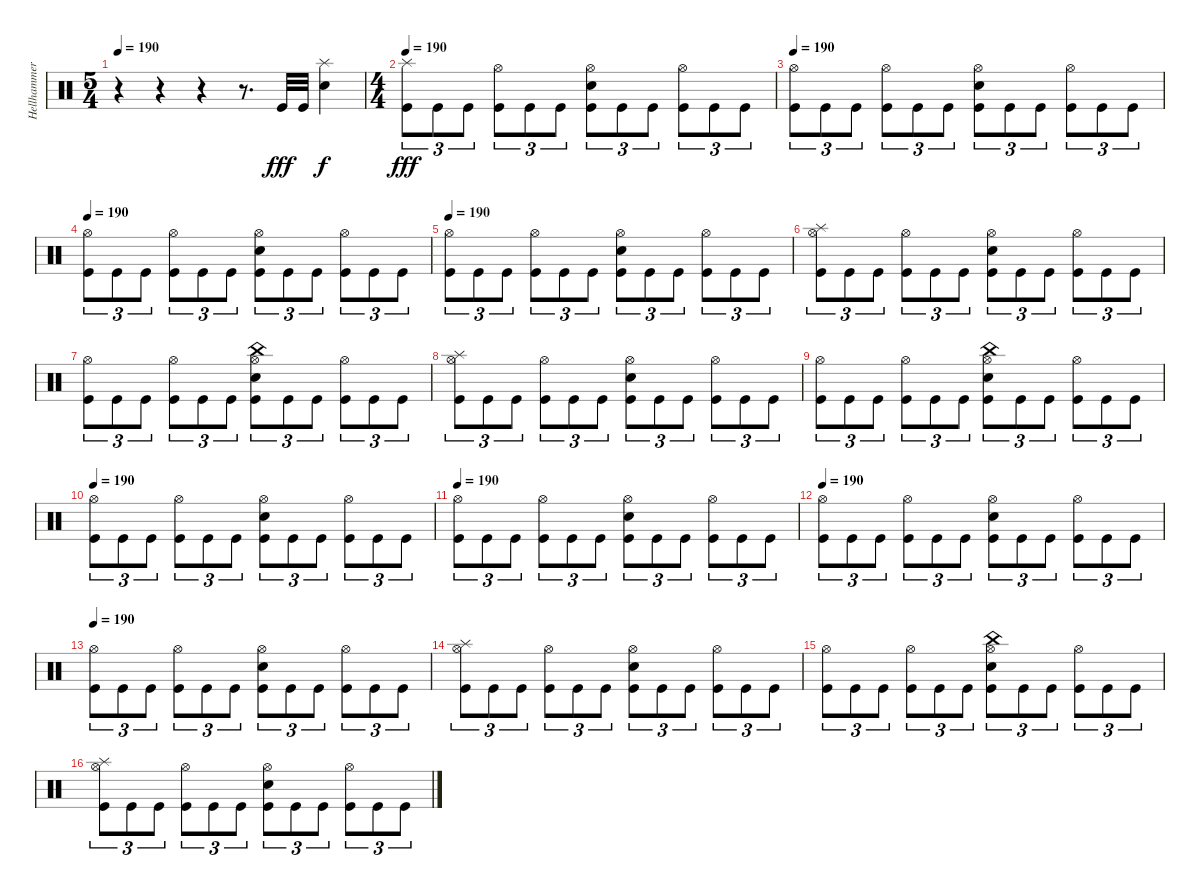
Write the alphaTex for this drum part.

\track ("Hellhammer" "Hellhammer") {instrument percussion}
\staff {score}
\articulation defaults
\ts (5 4)
\tempo 190
\clef neutral
\ks c
r.4{dy fff} r.4 r.4 r.8{d} "Kick (hit)".32 "Kick (hit)".32 ("Splash (hit)" "Electric Snare (hit)").4{dy f} |
\ts (4 4)
\tempo 190
("Splash (hit)" "Kick (hit)").8{tu (3 2) dy fff} "Kick (hit)".8{tu (3 2)} "Kick (hit)".8{tu (3 2)} ("Hi-Hat (open)" "Kick (hit)").8{tu (3 2)} "Kick (hit)".8{tu (3 2)} "Kick (hit)".8{tu (3 2)} ("Hi-Hat (open)" "Electric Snare (hit)" "Kick (hit)").8{tu (3 2)} "Kick (hit)".8{tu (3 2)} "Kick (hit)".8{tu (3 2)} ("Hi-Hat (open)" "Kick (hit)").8{tu (3 2)} "Kick (hit)".8{tu (3 2)} "Kick (hit)".8{tu (3 2)} |
\tempo 190
("Hi-Hat (open)" "Kick (hit)").8{tu (3 2)} "Kick (hit)".8{tu (3 2)} "Kick (hit)".8{tu (3 2)} ("Hi-Hat (open)" "Kick (hit)").8{tu (3 2)} "Kick (hit)".8{tu (3 2)} "Kick (hit)".8{tu (3 2)} ("Hi-Hat (open)" "Electric Snare (hit)" "Kick (hit)").8{tu (3 2)} "Kick (hit)".8{tu (3 2)} "Kick (hit)".8{tu (3 2)} ("Hi-Hat (open)" "Kick (hit)").8{tu (3 2)} "Kick (hit)".8{tu (3 2)} "Kick (hit)".8{tu (3 2)} |
\tempo 190
("Hi-Hat (open)" "Kick (hit)").8{tu (3 2)} "Kick (hit)".8{tu (3 2)} "Kick (hit)".8{tu (3 2)} ("Hi-Hat (open)" "Kick (hit)").8{tu (3 2)} "Kick (hit)".8{tu (3 2)} "Kick (hit)".8{tu (3 2)} ("Hi-Hat (open)" "Electric Snare (hit)" "Kick (hit)").8{tu (3 2)} "Kick (hit)".8{tu (3 2)} "Kick (hit)".8{tu (3 2)} ("Hi-Hat (open)" "Kick (hit)").8{tu (3 2)} "Kick (hit)".8{tu (3 2)} "Kick (hit)".8{tu (3 2)} |
\tempo 190
("Hi-Hat (open)" "Kick (hit)").8{tu (3 2)} "Kick (hit)".8{tu (3 2)} "Kick (hit)".8{tu (3 2)} ("Hi-Hat (open)" "Kick (hit)").8{tu (3 2)} "Kick (hit)".8{tu (3 2)} "Kick (hit)".8{tu (3 2)} ("Hi-Hat (open)" "Electric Snare (hit)" "Kick (hit)").8{tu (3 2)} "Kick (hit)".8{tu (3 2)} "Kick (hit)".8{tu (3 2)} ("Hi-Hat (open)" "Kick (hit)").8{tu (3 2)} "Kick (hit)".8{tu (3 2)} "Kick (hit)".8{tu (3 2)} |
("Splash (hit)" "Hi-Hat (open)" "Kick (hit)").8{tu (3 2)} "Kick (hit)".8{tu (3 2)} "Kick (hit)".8{tu (3 2)} ("Hi-Hat (open)" "Kick (hit)").8{tu (3 2)} "Kick (hit)".8{tu (3 2)} "Kick (hit)".8{tu (3 2)} ("Hi-Hat (open)" "Electric Snare (hit)" "Kick (hit)").8{tu (3 2)} "Kick (hit)".8{tu (3 2)} "Kick (hit)".8{tu (3 2)} ("Hi-Hat (open)" "Kick (hit)").8{tu (3 2)} "Kick (hit)".8{tu (3 2)} "Kick (hit)".8{tu (3 2)} |
("Hi-Hat (open)" "Kick (hit)").8{tu (3 2)} "Kick (hit)".8{tu (3 2)} "Kick (hit)".8{tu (3 2)} ("Hi-Hat (open)" "Kick (hit)").8{tu (3 2)} "Kick (hit)".8{tu (3 2)} "Kick (hit)".8{tu (3 2)} ("China (hit)" "Hi-Hat (open)" "Electric Snare (hit)" "Kick (hit)").8{tu (3 2)} "Kick (hit)".8{tu (3 2)} "Kick (hit)".8{tu (3 2)} ("Hi-Hat (open)" "Kick (hit)").8{tu (3 2)} "Kick (hit)".8{tu (3 2)} "Kick (hit)".8{tu (3 2)} |
("Splash (hit)" "Hi-Hat (open)" "Kick (hit)").8{tu (3 2)} "Kick (hit)".8{tu (3 2)} "Kick (hit)".8{tu (3 2)} ("Hi-Hat (open)" "Kick (hit)").8{tu (3 2)} "Kick (hit)".8{tu (3 2)} "Kick (hit)".8{tu (3 2)} ("Hi-Hat (open)" "Electric Snare (hit)" "Kick (hit)").8{tu (3 2)} "Kick (hit)".8{tu (3 2)} "Kick (hit)".8{tu (3 2)} ("Hi-Hat (open)" "Kick (hit)").8{tu (3 2)} "Kick (hit)".8{tu (3 2)} "Kick (hit)".8{tu (3 2)} |
("Hi-Hat (open)" "Kick (hit)").8{tu (3 2)} "Kick (hit)".8{tu (3 2)} "Kick (hit)".8{tu (3 2)} ("Hi-Hat (open)" "Kick (hit)").8{tu (3 2)} "Kick (hit)".8{tu (3 2)} "Kick (hit)".8{tu (3 2)} ("China (hit)" "Hi-Hat (open)" "Electric Snare (hit)" "Kick (hit)").8{tu (3 2)} "Kick (hit)".8{tu (3 2)} "Kick (hit)".8{tu (3 2)} ("Hi-Hat (open)" "Kick (hit)").8{tu (3 2)} "Kick (hit)".8{tu (3 2)} "Kick (hit)".8{tu (3 2)} |
\tempo 190
("Hi-Hat (open)" "Kick (hit)").8{tu (3 2)} "Kick (hit)".8{tu (3 2)} "Kick (hit)".8{tu (3 2)} ("Hi-Hat (open)" "Kick (hit)").8{tu (3 2)} "Kick (hit)".8{tu (3 2)} "Kick (hit)".8{tu (3 2)} ("Hi-Hat (open)" "Electric Snare (hit)" "Kick (hit)").8{tu (3 2)} "Kick (hit)".8{tu (3 2)} "Kick (hit)".8{tu (3 2)} ("Hi-Hat (open)" "Kick (hit)").8{tu (3 2)} "Kick (hit)".8{tu (3 2)} "Kick (hit)".8{tu (3 2)} |
\tempo 190
("Hi-Hat (open)" "Kick (hit)").8{tu (3 2)} "Kick (hit)".8{tu (3 2)} "Kick (hit)".8{tu (3 2)} ("Hi-Hat (open)" "Kick (hit)").8{tu (3 2)} "Kick (hit)".8{tu (3 2)} "Kick (hit)".8{tu (3 2)} ("Hi-Hat (open)" "Electric Snare (hit)" "Kick (hit)").8{tu (3 2)} "Kick (hit)".8{tu (3 2)} "Kick (hit)".8{tu (3 2)} ("Hi-Hat (open)" "Kick (hit)").8{tu (3 2)} "Kick (hit)".8{tu (3 2)} "Kick (hit)".8{tu (3 2)} |
\tempo 190
("Hi-Hat (open)" "Kick (hit)").8{tu (3 2)} "Kick (hit)".8{tu (3 2)} "Kick (hit)".8{tu (3 2)} ("Hi-Hat (open)" "Kick (hit)").8{tu (3 2)} "Kick (hit)".8{tu (3 2)} "Kick (hit)".8{tu (3 2)} ("Hi-Hat (open)" "Electric Snare (hit)" "Kick (hit)").8{tu (3 2)} "Kick (hit)".8{tu (3 2)} "Kick (hit)".8{tu (3 2)} ("Hi-Hat (open)" "Kick (hit)").8{tu (3 2)} "Kick (hit)".8{tu (3 2)} "Kick (hit)".8{tu (3 2)} |
\tempo 190
("Hi-Hat (open)" "Kick (hit)").8{tu (3 2)} "Kick (hit)".8{tu (3 2)} "Kick (hit)".8{tu (3 2)} ("Hi-Hat (open)" "Kick (hit)").8{tu (3 2)} "Kick (hit)".8{tu (3 2)} "Kick (hit)".8{tu (3 2)} ("Hi-Hat (open)" "Electric Snare (hit)" "Kick (hit)").8{tu (3 2)} "Kick (hit)".8{tu (3 2)} "Kick (hit)".8{tu (3 2)} ("Hi-Hat (open)" "Kick (hit)").8{tu (3 2)} "Kick (hit)".8{tu (3 2)} "Kick (hit)".8{tu (3 2)} |
("Splash (hit)" "Hi-Hat (open)" "Kick (hit)").8{tu (3 2)} "Kick (hit)".8{tu (3 2)} "Kick (hit)".8{tu (3 2)} ("Hi-Hat (open)" "Kick (hit)").8{tu (3 2)} "Kick (hit)".8{tu (3 2)} "Kick (hit)".8{tu (3 2)} ("Hi-Hat (open)" "Electric Snare (hit)" "Kick (hit)").8{tu (3 2)} "Kick (hit)".8{tu (3 2)} "Kick (hit)".8{tu (3 2)} ("Hi-Hat (open)" "Kick (hit)").8{tu (3 2)} "Kick (hit)".8{tu (3 2)} "Kick (hit)".8{tu (3 2)} |
("Hi-Hat (open)" "Kick (hit)").8{tu (3 2)} "Kick (hit)".8{tu (3 2)} "Kick (hit)".8{tu (3 2)} ("Hi-Hat (open)" "Kick (hit)").8{tu (3 2)} "Kick (hit)".8{tu (3 2)} "Kick (hit)".8{tu (3 2)} ("China (hit)" "Hi-Hat (open)" "Electric Snare (hit)" "Kick (hit)").8{tu (3 2)} "Kick (hit)".8{tu (3 2)} "Kick (hit)".8{tu (3 2)} ("Hi-Hat (open)" "Kick (hit)").8{tu (3 2)} "Kick (hit)".8{tu (3 2)} "Kick (hit)".8{tu (3 2)} |
("Splash (hit)" "Hi-Hat (open)" "Kick (hit)").8{tu (3 2)} "Kick (hit)".8{tu (3 2)} "Kick (hit)".8{tu (3 2)} ("Hi-Hat (open)" "Kick (hit)").8{tu (3 2)} "Kick (hit)".8{tu (3 2)} "Kick (hit)".8{tu (3 2)} ("Hi-Hat (open)" "Electric Snare (hit)" "Kick (hit)").8{tu (3 2)} "Kick (hit)".8{tu (3 2)} "Kick (hit)".8{tu (3 2)} ("Hi-Hat (open)" "Kick (hit)").8{tu (3 2)} "Kick (hit)".8{tu (3 2)} "Kick (hit)".8{tu (3 2)}
